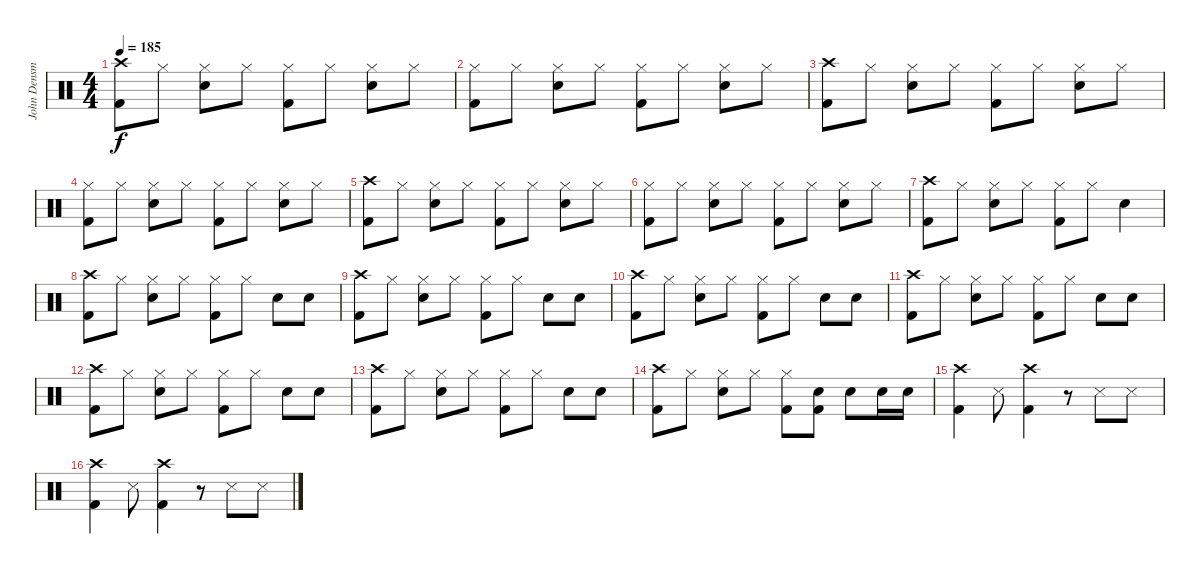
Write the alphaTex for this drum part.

\track ("John Densmore - Drums" "John Densm") {instrument percussion}
\staff {score}
\articulation defaults
\ts (4 4)
\tempo 185
\clef neutral
\ks c
("Crash high (hit)" "Kick (hit) 2").8{dy f} "Hi-Hat (closed)".8 ("Hi-Hat (closed)" "Snare (hit) 2").8 "Hi-Hat (closed)".8 ("Hi-Hat (closed)" "Kick (hit) 2").8 "Hi-Hat (closed)".8 ("Hi-Hat (closed)" "Snare (hit) 2").8 "Hi-Hat (closed)".8 |
("Hi-Hat (closed)" "Kick (hit) 2").8 "Hi-Hat (closed)".8 ("Hi-Hat (closed)" "Snare (hit) 2").8 "Hi-Hat (closed)".8 ("Hi-Hat (closed)" "Kick (hit) 2").8 "Hi-Hat (closed)".8 ("Hi-Hat (closed)" "Snare (hit) 2").8 "Hi-Hat (closed)".8 |
("Crash high (hit)" "Kick (hit) 2").8 "Hi-Hat (closed)".8 ("Hi-Hat (closed)" "Snare (hit) 2").8 "Hi-Hat (closed)".8 ("Hi-Hat (closed)" "Kick (hit) 2").8 "Hi-Hat (closed)".8 ("Hi-Hat (closed)" "Snare (hit) 2").8 "Hi-Hat (closed)".8 |
("Hi-Hat (closed)" "Kick (hit) 2").8 "Hi-Hat (closed)".8 ("Hi-Hat (closed)" "Snare (hit) 2").8 "Hi-Hat (closed)".8 ("Hi-Hat (closed)" "Kick (hit) 2").8 "Hi-Hat (closed)".8 ("Hi-Hat (closed)" "Snare (hit) 2").8 "Hi-Hat (closed)".8 |
("Crash high (hit)" "Kick (hit) 2").8 "Hi-Hat (closed)".8 ("Hi-Hat (closed)" "Snare (hit) 2").8 "Hi-Hat (closed)".8 ("Hi-Hat (closed)" "Kick (hit) 2").8 "Hi-Hat (closed)".8 ("Hi-Hat (closed)" "Snare (hit) 2").8 "Hi-Hat (closed)".8 |
("Hi-Hat (closed)" "Kick (hit) 2").8 "Hi-Hat (closed)".8 ("Hi-Hat (closed)" "Snare (hit) 2").8 "Hi-Hat (closed)".8 ("Hi-Hat (closed)" "Kick (hit) 2").8 "Hi-Hat (closed)".8 ("Hi-Hat (closed)" "Snare (hit) 2").8 "Hi-Hat (closed)".8 |
("Crash high (hit)" "Kick (hit) 2").8 "Hi-Hat (closed)".8 ("Hi-Hat (closed)" "Snare (hit) 2").8 "Hi-Hat (closed)".8 ("Hi-Hat (closed)" "Kick (hit) 2").8 "Hi-Hat (closed)".8 "Snare (hit) 2".4 |
("Crash high (hit)" "Kick (hit) 2").8 "Hi-Hat (closed)".8 ("Hi-Hat (closed)" "Snare (hit) 2").8 "Hi-Hat (closed)".8 ("Hi-Hat (closed)" "Kick (hit) 2").8 "Hi-Hat (closed)".8 "Snare (hit) 2".8 "Snare (hit) 2".8 |
("Crash high (hit)" "Kick (hit) 2").8 "Hi-Hat (closed)".8 ("Hi-Hat (closed)" "Snare (hit) 2").8 "Hi-Hat (closed)".8 ("Hi-Hat (closed)" "Kick (hit) 2").8 "Hi-Hat (closed)".8 "Snare (hit) 2".8 "Snare (hit) 2".8 |
("Crash high (hit)" "Kick (hit) 2").8 "Hi-Hat (closed)".8 ("Hi-Hat (closed)" "Snare (hit) 2").8 "Hi-Hat (closed)".8 ("Hi-Hat (closed)" "Kick (hit) 2").8 "Hi-Hat (closed)".8 "Snare (hit) 2".8 "Snare (hit) 2".8 |
("Crash high (hit)" "Kick (hit) 2").8 "Hi-Hat (closed)".8 ("Hi-Hat (closed)" "Snare (hit) 2").8 "Hi-Hat (closed)".8 ("Hi-Hat (closed)" "Kick (hit) 2").8 "Hi-Hat (closed)".8 "Snare (hit) 2".8 "Snare (hit) 2".8 |
("Crash high (hit)" "Kick (hit) 2").8 "Hi-Hat (closed)".8 ("Hi-Hat (closed)" "Snare (hit) 2").8 "Hi-Hat (closed)".8 ("Hi-Hat (closed)" "Kick (hit) 2").8 "Hi-Hat (closed)".8 "Snare (hit) 2".8 "Snare (hit) 2".8 |
("Crash high (hit)" "Kick (hit) 2").8 "Hi-Hat (closed)".8 ("Hi-Hat (closed)" "Snare (hit) 2").8 "Hi-Hat (closed)".8 ("Hi-Hat (closed)" "Kick (hit) 2").8 "Hi-Hat (closed)".8 "Snare (hit) 2".8 "Snare (hit) 2".8 |
("Crash high (hit)" "Kick (hit) 2").8 "Hi-Hat (closed)".8 ("Hi-Hat (closed)" "Snare (hit) 2").8 "Hi-Hat (closed)".8 ("Hi-Hat (closed)" "Kick (hit) 2").8 ("Snare (hit) 2" "Kick (hit) 2").8 "Snare (hit) 2".8 "Snare (hit) 2".16 "Snare (hit) 2".16 |
("Crash high (hit)" "Kick (hit) 2").4 "Snare (side stick) 3".8 ("Crash high (hit)" "Kick (hit) 2").4 r.8 "Snare (side stick) 3".8 "Snare (side stick) 3".8 |
("Crash high (hit)" "Kick (hit) 2").4 "Snare (side stick) 3".8 ("Crash high (hit)" "Kick (hit) 2").4 r.8 "Snare (side stick) 3".8 "Snare (side stick) 3".8
